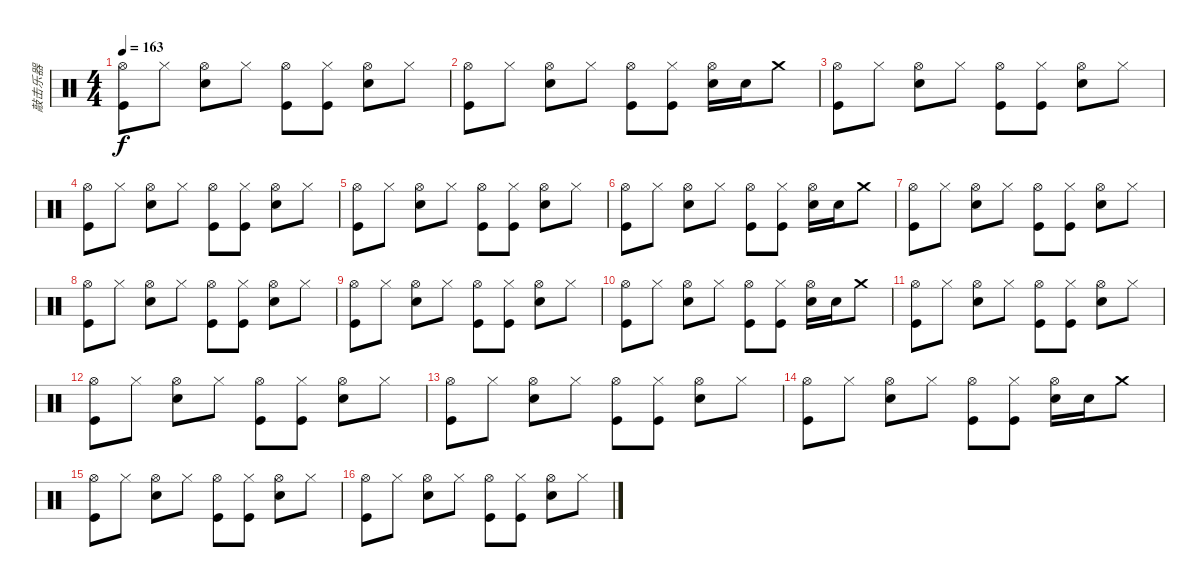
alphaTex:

\track ("敲击乐器" "敲击乐器") {instrument percussion}
\staff {score}
\articulation defaults
\ts (4 4)
\tempo 163
\clef neutral
\ks c
("Hi-Hat (open)" "Kick (hit)").8{dy f} "Hi-Hat (closed)".8 ("Hi-Hat (open)" "Snare (hit) 2").8 "Hi-Hat (closed)".8 ("Hi-Hat (open)" "Kick (hit)").8 ("Hi-Hat (closed)" "Kick (hit)").8 ("Hi-Hat (open)" "Snare (hit) 2").8 "Hi-Hat (closed)".8 |
("Hi-Hat (open)" "Kick (hit)").8 "Hi-Hat (closed)".8 ("Hi-Hat (open)" "Snare (hit) 2").8 "Hi-Hat (closed)".8 ("Hi-Hat (open)" "Kick (hit)").8 ("Hi-Hat (closed)" "Kick (hit)").8 ("Hi-Hat (open)" "Snare (hit) 2").16 "Snare (hit) 2".16 "Crash medium (hit)".8 |
("Hi-Hat (open)" "Kick (hit)").8 "Hi-Hat (closed)".8 ("Hi-Hat (open)" "Snare (hit) 2").8 "Hi-Hat (closed)".8 ("Hi-Hat (open)" "Kick (hit)").8 ("Hi-Hat (closed)" "Kick (hit)").8 ("Hi-Hat (open)" "Snare (hit) 2").8 "Hi-Hat (closed)".8 |
("Hi-Hat (open)" "Kick (hit)").8 "Hi-Hat (closed)".8 ("Hi-Hat (open)" "Snare (hit) 2").8 "Hi-Hat (closed)".8 ("Hi-Hat (open)" "Kick (hit)").8 ("Hi-Hat (closed)" "Kick (hit)").8 ("Hi-Hat (open)" "Snare (hit) 2").8 "Hi-Hat (closed)".8 |
("Hi-Hat (open)" "Kick (hit)").8 "Hi-Hat (closed)".8 ("Hi-Hat (open)" "Snare (hit) 2").8 "Hi-Hat (closed)".8 ("Hi-Hat (open)" "Kick (hit)").8 ("Hi-Hat (closed)" "Kick (hit)").8 ("Hi-Hat (open)" "Snare (hit) 2").8 "Hi-Hat (closed)".8 |
("Hi-Hat (open)" "Kick (hit)").8 "Hi-Hat (closed)".8 ("Hi-Hat (open)" "Snare (hit) 2").8 "Hi-Hat (closed)".8 ("Hi-Hat (open)" "Kick (hit)").8 ("Hi-Hat (closed)" "Kick (hit)").8 ("Hi-Hat (open)" "Snare (hit) 2").16 "Snare (hit) 2".16 "Crash medium (hit)".8 |
("Hi-Hat (open)" "Kick (hit)").8 "Hi-Hat (closed)".8 ("Hi-Hat (open)" "Snare (hit) 2").8 "Hi-Hat (closed)".8 ("Hi-Hat (open)" "Kick (hit)").8 ("Hi-Hat (closed)" "Kick (hit)").8 ("Hi-Hat (open)" "Snare (hit) 2").8 "Hi-Hat (closed)".8 |
("Hi-Hat (open)" "Kick (hit)").8 "Hi-Hat (closed)".8 ("Hi-Hat (open)" "Snare (hit) 2").8 "Hi-Hat (closed)".8 ("Hi-Hat (open)" "Kick (hit)").8 ("Hi-Hat (closed)" "Kick (hit)").8 ("Hi-Hat (open)" "Snare (hit) 2").8 "Hi-Hat (closed)".8 |
("Hi-Hat (open)" "Kick (hit)").8 "Hi-Hat (closed)".8 ("Hi-Hat (open)" "Snare (hit) 2").8 "Hi-Hat (closed)".8 ("Hi-Hat (open)" "Kick (hit)").8 ("Hi-Hat (closed)" "Kick (hit)").8 ("Hi-Hat (open)" "Snare (hit) 2").8 "Hi-Hat (closed)".8 |
("Hi-Hat (open)" "Kick (hit)").8 "Hi-Hat (closed)".8 ("Hi-Hat (open)" "Snare (hit) 2").8 "Hi-Hat (closed)".8 ("Hi-Hat (open)" "Kick (hit)").8 ("Hi-Hat (closed)" "Kick (hit)").8 ("Hi-Hat (open)" "Snare (hit) 2").16 "Snare (hit) 2".16 "Crash medium (hit)".8 |
("Hi-Hat (open)" "Kick (hit)").8 "Hi-Hat (closed)".8 ("Hi-Hat (open)" "Snare (hit) 2").8 "Hi-Hat (closed)".8 ("Hi-Hat (open)" "Kick (hit)").8 ("Hi-Hat (closed)" "Kick (hit)").8 ("Hi-Hat (open)" "Snare (hit) 2").8 "Hi-Hat (closed)".8 |
("Hi-Hat (open)" "Kick (hit)").8 "Hi-Hat (closed)".8 ("Hi-Hat (open)" "Snare (hit) 2").8 "Hi-Hat (closed)".8 ("Hi-Hat (open)" "Kick (hit)").8 ("Hi-Hat (closed)" "Kick (hit)").8 ("Hi-Hat (open)" "Snare (hit) 2").8 "Hi-Hat (closed)".8 |
("Hi-Hat (open)" "Kick (hit)").8 "Hi-Hat (closed)".8 ("Hi-Hat (open)" "Snare (hit) 2").8 "Hi-Hat (closed)".8 ("Hi-Hat (open)" "Kick (hit)").8 ("Hi-Hat (closed)" "Kick (hit)").8 ("Hi-Hat (open)" "Snare (hit) 2").8 "Hi-Hat (closed)".8 |
("Hi-Hat (open)" "Kick (hit)").8 "Hi-Hat (closed)".8 ("Hi-Hat (open)" "Snare (hit) 2").8 "Hi-Hat (closed)".8 ("Hi-Hat (open)" "Kick (hit)").8 ("Hi-Hat (closed)" "Kick (hit)").8 ("Hi-Hat (open)" "Snare (hit) 2").16 "Snare (hit) 2".16 "Crash medium (hit)".8 |
("Hi-Hat (open)" "Kick (hit)").8 "Hi-Hat (closed)".8 ("Hi-Hat (open)" "Snare (hit) 2").8 "Hi-Hat (closed)".8 ("Hi-Hat (open)" "Kick (hit)").8 ("Hi-Hat (closed)" "Kick (hit)").8 ("Hi-Hat (open)" "Snare (hit) 2").8 "Hi-Hat (closed)".8 |
("Hi-Hat (open)" "Kick (hit)").8 "Hi-Hat (closed)".8 ("Hi-Hat (open)" "Snare (hit) 2").8 "Hi-Hat (closed)".8 ("Hi-Hat (open)" "Kick (hit)").8 ("Hi-Hat (closed)" "Kick (hit)").8 ("Hi-Hat (open)" "Snare (hit) 2").8 "Hi-Hat (closed)".8
